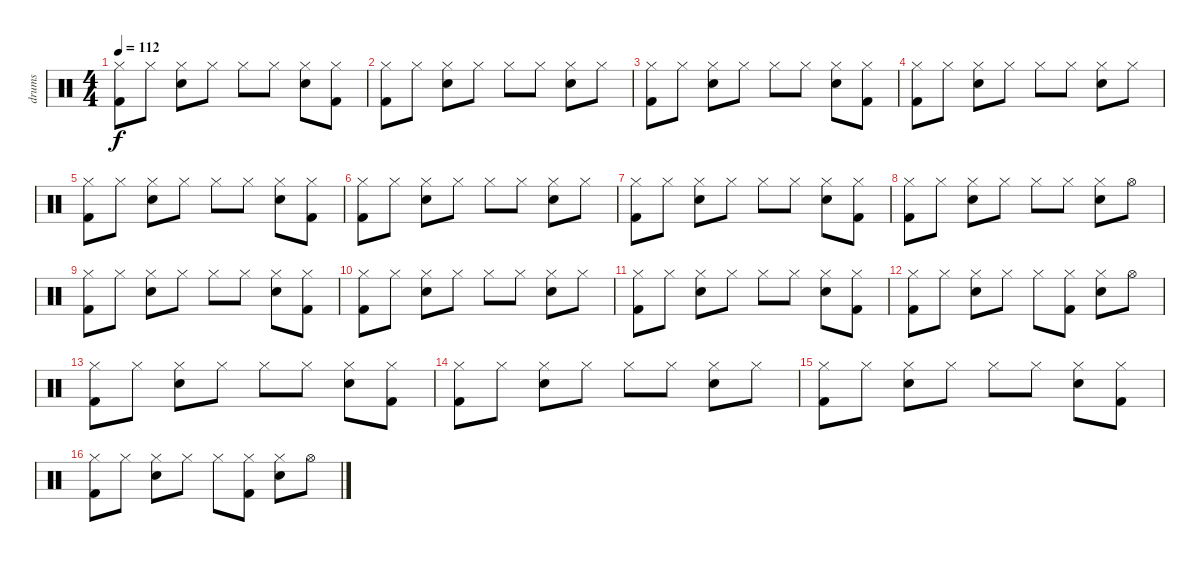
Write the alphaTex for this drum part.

\track ("drums" "drums") {instrument percussion}
\staff {score}
\articulation defaults
\ts (4 4)
\tempo 112
\clef neutral
\ks c
("Hi-Hat (closed)" "Kick (hit) 2").8{dy f} "Hi-Hat (closed)".8 ("Hi-Hat (closed)" "Snare (hit) 2").8 "Hi-Hat (closed)".8 "Hi-Hat (closed)".8 "Hi-Hat (closed)".8 ("Hi-Hat (closed)" "Snare (hit) 2").8 ("Hi-Hat (closed)" "Kick (hit) 2").8 |
("Hi-Hat (closed)" "Kick (hit) 2").8 "Hi-Hat (closed)".8 ("Hi-Hat (closed)" "Snare (hit) 2").8 "Hi-Hat (closed)".8 "Hi-Hat (closed)".8 "Hi-Hat (closed)".8 ("Hi-Hat (closed)" "Snare (hit) 2").8 "Hi-Hat (closed)".8 |
("Hi-Hat (closed)" "Kick (hit) 2").8 "Hi-Hat (closed)".8 ("Hi-Hat (closed)" "Snare (hit) 2").8 "Hi-Hat (closed)".8 "Hi-Hat (closed)".8 "Hi-Hat (closed)".8 ("Hi-Hat (closed)" "Snare (hit) 2").8 ("Hi-Hat (closed)" "Kick (hit) 2").8 |
("Hi-Hat (closed)" "Kick (hit) 2").8 "Hi-Hat (closed)".8 ("Hi-Hat (closed)" "Snare (hit) 2").8 "Hi-Hat (closed)".8 "Hi-Hat (closed)".8 "Hi-Hat (closed)".8 ("Hi-Hat (closed)" "Snare (hit) 2").8 "Hi-Hat (closed)".8 |
("Hi-Hat (closed)" "Kick (hit) 2").8 "Hi-Hat (closed)".8 ("Hi-Hat (closed)" "Snare (hit) 2").8 "Hi-Hat (closed)".8 "Hi-Hat (closed)".8 "Hi-Hat (closed)".8 ("Hi-Hat (closed)" "Snare (hit) 2").8 ("Hi-Hat (closed)" "Kick (hit) 2").8 |
("Hi-Hat (closed)" "Kick (hit) 2").8 "Hi-Hat (closed)".8 ("Hi-Hat (closed)" "Snare (hit) 2").8 "Hi-Hat (closed)".8 "Hi-Hat (closed)".8 "Hi-Hat (closed)".8 ("Hi-Hat (closed)" "Snare (hit) 2").8 "Hi-Hat (closed)".8 |
("Hi-Hat (closed)" "Kick (hit) 2").8 "Hi-Hat (closed)".8 ("Hi-Hat (closed)" "Snare (hit) 2").8 "Hi-Hat (closed)".8 "Hi-Hat (closed)".8 "Hi-Hat (closed)".8 ("Hi-Hat (closed)" "Snare (hit) 2").8 ("Hi-Hat (closed)" "Kick (hit) 2").8 |
("Hi-Hat (closed)" "Kick (hit) 2").8 "Hi-Hat (closed)".8 ("Hi-Hat (closed)" "Snare (hit) 2").8 "Hi-Hat (closed)".8 "Hi-Hat (closed)".8 "Hi-Hat (closed)".8 ("Hi-Hat (closed)" "Snare (hit) 2").8 "Hi-Hat (open)".8 |
("Hi-Hat (closed)" "Kick (hit) 2").8 "Hi-Hat (closed)".8 ("Hi-Hat (closed)" "Snare (hit) 2").8 "Hi-Hat (closed)".8 "Hi-Hat (closed)".8 "Hi-Hat (closed)".8 ("Hi-Hat (closed)" "Snare (hit) 2").8 ("Hi-Hat (closed)" "Kick (hit) 2").8 |
("Hi-Hat (closed)" "Kick (hit) 2").8 "Hi-Hat (closed)".8 ("Hi-Hat (closed)" "Snare (hit) 2").8 "Hi-Hat (closed)".8 "Hi-Hat (closed)".8 "Hi-Hat (closed)".8 ("Hi-Hat (closed)" "Snare (hit) 2").8 "Hi-Hat (closed)".8 |
("Hi-Hat (closed)" "Kick (hit) 2").8 "Hi-Hat (closed)".8 ("Hi-Hat (closed)" "Snare (hit) 2").8 "Hi-Hat (closed)".8 "Hi-Hat (closed)".8 "Hi-Hat (closed)".8 ("Hi-Hat (closed)" "Snare (hit) 2").8 ("Hi-Hat (closed)" "Kick (hit) 2").8 |
("Hi-Hat (closed)" "Kick (hit) 2").8 "Hi-Hat (closed)".8 ("Hi-Hat (closed)" "Snare (hit) 2").8 "Hi-Hat (closed)".8 "Hi-Hat (closed)".8 ("Hi-Hat (closed)" "Kick (hit) 2").8 ("Hi-Hat (closed)" "Snare (hit) 2").8 "Hi-Hat (open)".8 |
("Hi-Hat (closed)" "Kick (hit) 2").8 "Hi-Hat (closed)".8 ("Hi-Hat (closed)" "Snare (hit) 2").8 "Hi-Hat (closed)".8 "Hi-Hat (closed)".8 "Hi-Hat (closed)".8 ("Hi-Hat (closed)" "Snare (hit) 2").8 ("Hi-Hat (closed)" "Kick (hit) 2").8 |
("Hi-Hat (closed)" "Kick (hit) 2").8 "Hi-Hat (closed)".8 ("Hi-Hat (closed)" "Snare (hit) 2").8 "Hi-Hat (closed)".8 "Hi-Hat (closed)".8 "Hi-Hat (closed)".8 ("Hi-Hat (closed)" "Snare (hit) 2").8 "Hi-Hat (closed)".8 |
("Hi-Hat (closed)" "Kick (hit) 2").8 "Hi-Hat (closed)".8 ("Hi-Hat (closed)" "Snare (hit) 2").8 "Hi-Hat (closed)".8 "Hi-Hat (closed)".8 "Hi-Hat (closed)".8 ("Hi-Hat (closed)" "Snare (hit) 2").8 ("Hi-Hat (closed)" "Kick (hit) 2").8 |
("Hi-Hat (closed)" "Kick (hit) 2").8 "Hi-Hat (closed)".8 ("Hi-Hat (closed)" "Snare (hit) 2").8 "Hi-Hat (closed)".8 "Hi-Hat (closed)".8 ("Hi-Hat (closed)" "Kick (hit) 2").8 ("Hi-Hat (closed)" "Snare (hit) 2").8 "Hi-Hat (open)".8
